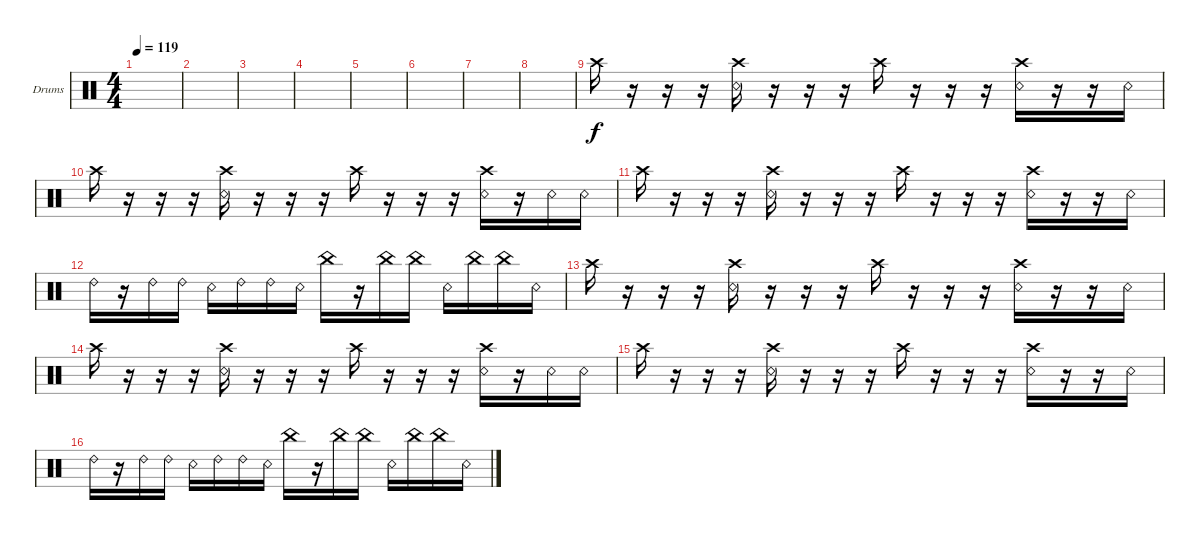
\defaultSystemsLayout 4
\bracketExtendMode groupsimilarinstruments
\firstSystemTrackNameOrientation horizontal
\otherSystemsTrackNameOrientation horizontal
\track ("Drumkit" "Drums") {instrument percussion}
\staff {score}
\articulation defaults
\ts (4 4)
\tempo 119
\clef neutral
\scale
0.472222
\ks c
|
\scale
0.263889 |
\scale
0.263889 |
\scale
0.333333 |
\scale
0.333333 |
\scale
0.333333 |
\scale
0.333333 |
\scale
0.333333 |
\scale
0.333333 "Crash high (hit)".16 r.16 r.16 r.16 ("Snare (rim shot)" "Crash high (hit)").16 r.16 r.16 r.16 "Crash high (hit)".16 r.16 r.16 r.16 ("Snare (rim shot)" "Crash high (hit)").16 r.16 r.16 "Snare (rim shot)".16 |
\scale
0.333333 "Crash high (hit)".16 r.16 r.16 r.16 ("Snare (rim shot)" "Crash high (hit)").16 r.16 r.16 r.16 "Crash high (hit)".16 r.16 r.16 r.16 ("Snare (rim shot)" "Crash high (hit)").16 r.16 "Snare (rim shot)".16 "Snare (rim shot)".16 |
\scale
0.333333 "Crash high (hit)".16 r.16 r.16 r.16 ("Snare (rim shot)" "Crash high (hit)").16 r.16 r.16 r.16 "Crash high (hit)".16 r.16 r.16 r.16 ("Snare (rim shot)" "Crash high (hit)").16 r.16 r.16 "Snare (rim shot)".16 |
\scale
0.333333 "Ride (bell) 2".16 r.16 "Ride (bell) 2".16 "Ride (bell) 2".16 "Snare (rim shot)".16 "Ride (bell) 2".16 "Ride (bell) 2".16 "Snare (rim shot)".16 "China (hit)".16 r.16 "China (hit)".16 "China (hit)".16 "Snare (rim shot)".16 "China (hit)".16 "China (hit)".16 "Snare (rim shot)".16 |
\scale
0.333333 "Crash high (hit)".16 r.16 r.16 r.16 ("Snare (rim shot)" "Crash high (hit)").16 r.16 r.16 r.16 "Crash high (hit)".16 r.16 r.16 r.16 ("Snare (rim shot)" "Crash high (hit)").16 r.16 r.16 "Snare (rim shot)".16 |
\scale
0.333333 "Crash high (hit)".16 r.16 r.16 r.16 ("Snare (rim shot)" "Crash high (hit)").16 r.16 r.16 r.16 "Crash high (hit)".16 r.16 r.16 r.16 ("Snare (rim shot)" "Crash high (hit)").16 r.16 "Snare (rim shot)".16 "Snare (rim shot)".16 |
\scale
0.333333 "Crash high (hit)".16 r.16 r.16 r.16 ("Snare (rim shot)" "Crash high (hit)").16 r.16 r.16 r.16 "Crash high (hit)".16 r.16 r.16 r.16 ("Snare (rim shot)" "Crash high (hit)").16 r.16 r.16 "Snare (rim shot)".16 |
\scale
0.333333 "Ride (bell) 2".16 r.16 "Ride (bell) 2".16 "Ride (bell) 2".16 "Snare (rim shot)".16 "Ride (bell) 2".16 "Ride (bell) 2".16 "Snare (rim shot)".16 "China (hit)".16 r.16 "China (hit)".16 "China (hit)".16 "Snare (rim shot)".16 "China (hit)".16 "China (hit)".16 "Snare (rim shot)".16
